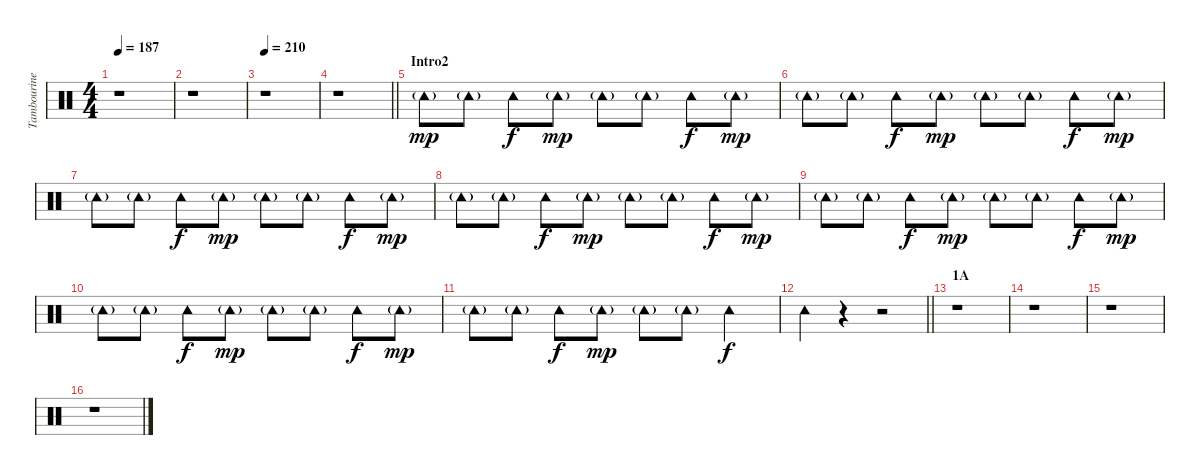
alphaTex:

\track ("Tambourine" "Tambourine") {instrument percussion}
\staff {score}
\articulation defaults
\ts (4 4)
\tempo 187
\clef neutral
\ks c
r.1{dy mp} |
r.1 |
\tempo 210
r.1 |
\barLineRight lightlight
r.1 |
\section ("" "Intro2")
"Tambourine (hit)"{g}.8 "Tambourine (hit)"{g}.8 "Tambourine (hit)".8{dy f} "Tambourine (hit)"{g}.8{dy mp} "Tambourine (hit)"{g}.8 "Tambourine (hit)"{g}.8 "Tambourine (hit)".8{dy f} "Tambourine (hit)"{g}.8{dy mp} |
"Tambourine (hit)"{g}.8 "Tambourine (hit)"{g}.8 "Tambourine (hit)".8{dy f} "Tambourine (hit)"{g}.8{dy mp} "Tambourine (hit)"{g}.8 "Tambourine (hit)"{g}.8 "Tambourine (hit)".8{dy f} "Tambourine (hit)"{g}.8{dy mp} |
"Tambourine (hit)"{g}.8 "Tambourine (hit)"{g}.8 "Tambourine (hit)".8{dy f} "Tambourine (hit)"{g}.8{dy mp} "Tambourine (hit)"{g}.8 "Tambourine (hit)"{g}.8 "Tambourine (hit)".8{dy f} "Tambourine (hit)"{g}.8{dy mp} |
"Tambourine (hit)"{g}.8 "Tambourine (hit)"{g}.8 "Tambourine (hit)".8{dy f} "Tambourine (hit)"{g}.8{dy mp} "Tambourine (hit)"{g}.8 "Tambourine (hit)"{g}.8 "Tambourine (hit)".8{dy f} "Tambourine (hit)"{g}.8{dy mp} |
"Tambourine (hit)"{g}.8 "Tambourine (hit)"{g}.8 "Tambourine (hit)".8{dy f} "Tambourine (hit)"{g}.8{dy mp} "Tambourine (hit)"{g}.8 "Tambourine (hit)"{g}.8 "Tambourine (hit)".8{dy f} "Tambourine (hit)"{g}.8{dy mp} |
"Tambourine (hit)"{g}.8 "Tambourine (hit)"{g}.8 "Tambourine (hit)".8{dy f} "Tambourine (hit)"{g}.8{dy mp} "Tambourine (hit)"{g}.8 "Tambourine (hit)"{g}.8 "Tambourine (hit)".8{dy f} "Tambourine (hit)"{g}.8{dy mp} |
"Tambourine (hit)"{g}.8 "Tambourine (hit)"{g}.8 "Tambourine (hit)".8{dy f} "Tambourine (hit)"{g}.8{dy mp} "Tambourine (hit)"{g}.8 "Tambourine (hit)"{g}.8 "Tambourine (hit)".4{dy f} |
\barLineRight lightlight "Tambourine (hit)".4
r.4 r.2 |
\section ("" "1A")
r.1 |
r.1 |
r.1 |
r.1
